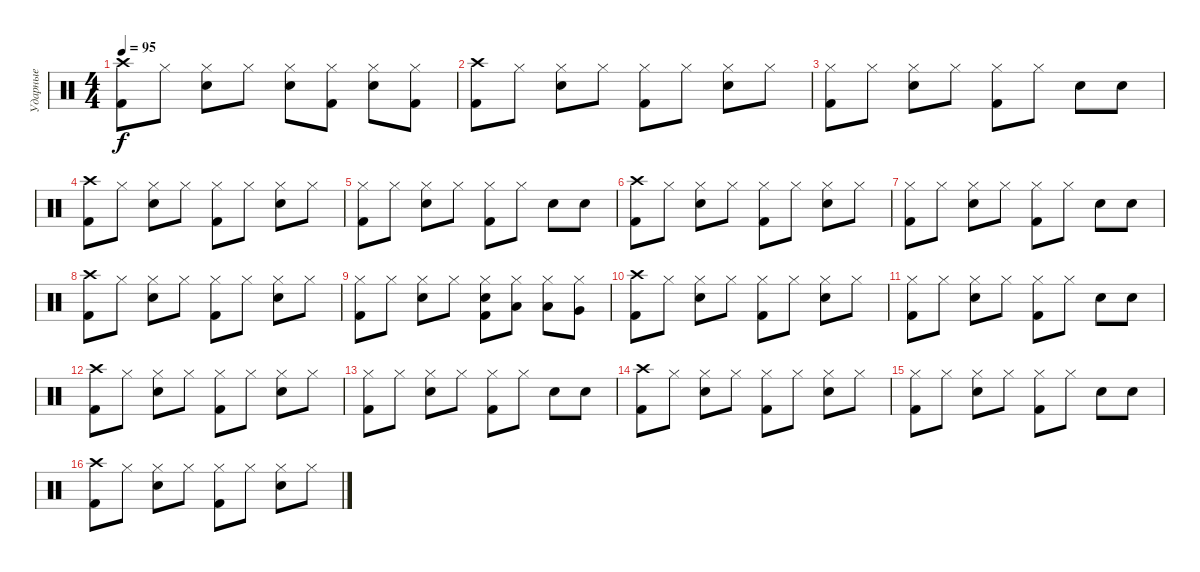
\track ("Ударные" "Ударные") {instrument percussion}
\staff {score}
\articulation defaults
\ts (4 4)
\tempo 95
\clef neutral
\ks c
("Crash high (hit)" "Kick (hit) 2").8{dy f} "Hi-Hat (closed)".8 ("Hi-Hat (closed)" "Snare (hit) 2").8 "Hi-Hat (closed)".8 ("Hi-Hat (closed)" "Snare (hit) 2").8 ("Hi-Hat (closed)" "Kick (hit) 2").8 ("Hi-Hat (closed)" "Snare (hit) 2").8 ("Hi-Hat (closed)" "Kick (hit) 2").8 |
("Crash high (hit)" "Kick (hit) 2").8 "Hi-Hat (closed)".8 ("Hi-Hat (closed)" "Snare (hit) 2").8 "Hi-Hat (closed)".8 ("Hi-Hat (closed)" "Kick (hit) 2").8 "Hi-Hat (closed)".8 ("Hi-Hat (closed)" "Snare (hit) 2").8 "Hi-Hat (closed)".8 |
("Hi-Hat (closed)" "Kick (hit) 2").8 "Hi-Hat (closed)".8 ("Hi-Hat (closed)" "Snare (hit) 2").8 "Hi-Hat (closed)".8 ("Hi-Hat (closed)" "Kick (hit) 2").8 "Hi-Hat (closed)".8 "Snare (hit) 2".8 "Snare (hit) 2".8 |
("Crash high (hit)" "Kick (hit) 2").8 "Hi-Hat (closed)".8 ("Hi-Hat (closed)" "Snare (hit) 2").8 "Hi-Hat (closed)".8 ("Hi-Hat (closed)" "Kick (hit) 2").8 "Hi-Hat (closed)".8 ("Hi-Hat (closed)" "Snare (hit) 2").8 "Hi-Hat (closed)".8 |
("Hi-Hat (closed)" "Kick (hit) 2").8 "Hi-Hat (closed)".8 ("Hi-Hat (closed)" "Snare (hit) 2").8 "Hi-Hat (closed)".8 ("Hi-Hat (closed)" "Kick (hit) 2").8 "Hi-Hat (closed)".8 "Snare (hit) 2".8 "Snare (hit) 2".8 |
("Crash high (hit)" "Kick (hit) 2").8 "Hi-Hat (closed)".8 ("Hi-Hat (closed)" "Snare (hit) 2").8 "Hi-Hat (closed)".8 ("Hi-Hat (closed)" "Kick (hit) 2").8 "Hi-Hat (closed)".8 ("Hi-Hat (closed)" "Snare (hit) 2").8 "Hi-Hat (closed)".8 |
("Hi-Hat (closed)" "Kick (hit) 2").8 "Hi-Hat (closed)".8 ("Hi-Hat (closed)" "Snare (hit) 2").8 "Hi-Hat (closed)".8 ("Hi-Hat (closed)" "Kick (hit) 2").8 "Hi-Hat (closed)".8 "Snare (hit) 2".8 "Snare (hit) 2".8 |
("Crash high (hit)" "Kick (hit) 2").8 "Hi-Hat (closed)".8 ("Hi-Hat (closed)" "Snare (hit) 2").8 "Hi-Hat (closed)".8 ("Hi-Hat (closed)" "Kick (hit) 2").8 "Hi-Hat (closed)".8 ("Hi-Hat (closed)" "Snare (hit) 2").8 "Hi-Hat (closed)".8 |
("Hi-Hat (closed)" "Kick (hit) 2").8 "Hi-Hat (closed)".8 ("Hi-Hat (closed)" "Snare (hit) 2").8 "Hi-Hat (closed)".8 ("Hi-Hat (closed)" "Snare (hit) 2" "Kick (hit) 2").8 ("Hi-Hat (closed)" "Low Floor Tom (hit)").8 ("Hi-Hat (closed)" "Low Floor Tom (hit)").8 ("Hi-Hat (closed)" "Very Low Tom (hit)").8 |
("Crash high (hit)" "Kick (hit) 2").8 "Hi-Hat (closed)".8 ("Hi-Hat (closed)" "Snare (hit) 2").8 "Hi-Hat (closed)".8 ("Hi-Hat (closed)" "Kick (hit) 2").8 "Hi-Hat (closed)".8 ("Hi-Hat (closed)" "Snare (hit) 2").8 "Hi-Hat (closed)".8 |
("Hi-Hat (closed)" "Kick (hit) 2").8 "Hi-Hat (closed)".8 ("Hi-Hat (closed)" "Snare (hit) 2").8 "Hi-Hat (closed)".8 ("Hi-Hat (closed)" "Kick (hit) 2").8 "Hi-Hat (closed)".8 "Snare (hit) 2".8 "Snare (hit) 2".8 |
("Crash high (hit)" "Kick (hit) 2").8 "Hi-Hat (closed)".8 ("Hi-Hat (closed)" "Snare (hit) 2").8 "Hi-Hat (closed)".8 ("Hi-Hat (closed)" "Kick (hit) 2").8 "Hi-Hat (closed)".8 ("Hi-Hat (closed)" "Snare (hit) 2").8 "Hi-Hat (closed)".8 |
("Hi-Hat (closed)" "Kick (hit) 2").8 "Hi-Hat (closed)".8 ("Hi-Hat (closed)" "Snare (hit) 2").8 "Hi-Hat (closed)".8 ("Hi-Hat (closed)" "Kick (hit) 2").8 "Hi-Hat (closed)".8 "Snare (hit) 2".8 "Snare (hit) 2".8 |
("Crash high (hit)" "Kick (hit) 2").8 "Hi-Hat (closed)".8 ("Hi-Hat (closed)" "Snare (hit) 2").8 "Hi-Hat (closed)".8 ("Hi-Hat (closed)" "Kick (hit) 2").8 "Hi-Hat (closed)".8 ("Hi-Hat (closed)" "Snare (hit) 2").8 "Hi-Hat (closed)".8 |
("Hi-Hat (closed)" "Kick (hit) 2").8 "Hi-Hat (closed)".8 ("Hi-Hat (closed)" "Snare (hit) 2").8 "Hi-Hat (closed)".8 ("Hi-Hat (closed)" "Kick (hit) 2").8 "Hi-Hat (closed)".8 "Snare (hit) 2".8 "Snare (hit) 2".8 |
("Crash high (hit)" "Kick (hit) 2").8 "Hi-Hat (closed)".8 ("Hi-Hat (closed)" "Snare (hit) 2").8 "Hi-Hat (closed)".8 ("Hi-Hat (closed)" "Kick (hit) 2").8 "Hi-Hat (closed)".8 ("Hi-Hat (closed)" "Snare (hit) 2").8 "Hi-Hat (closed)".8
